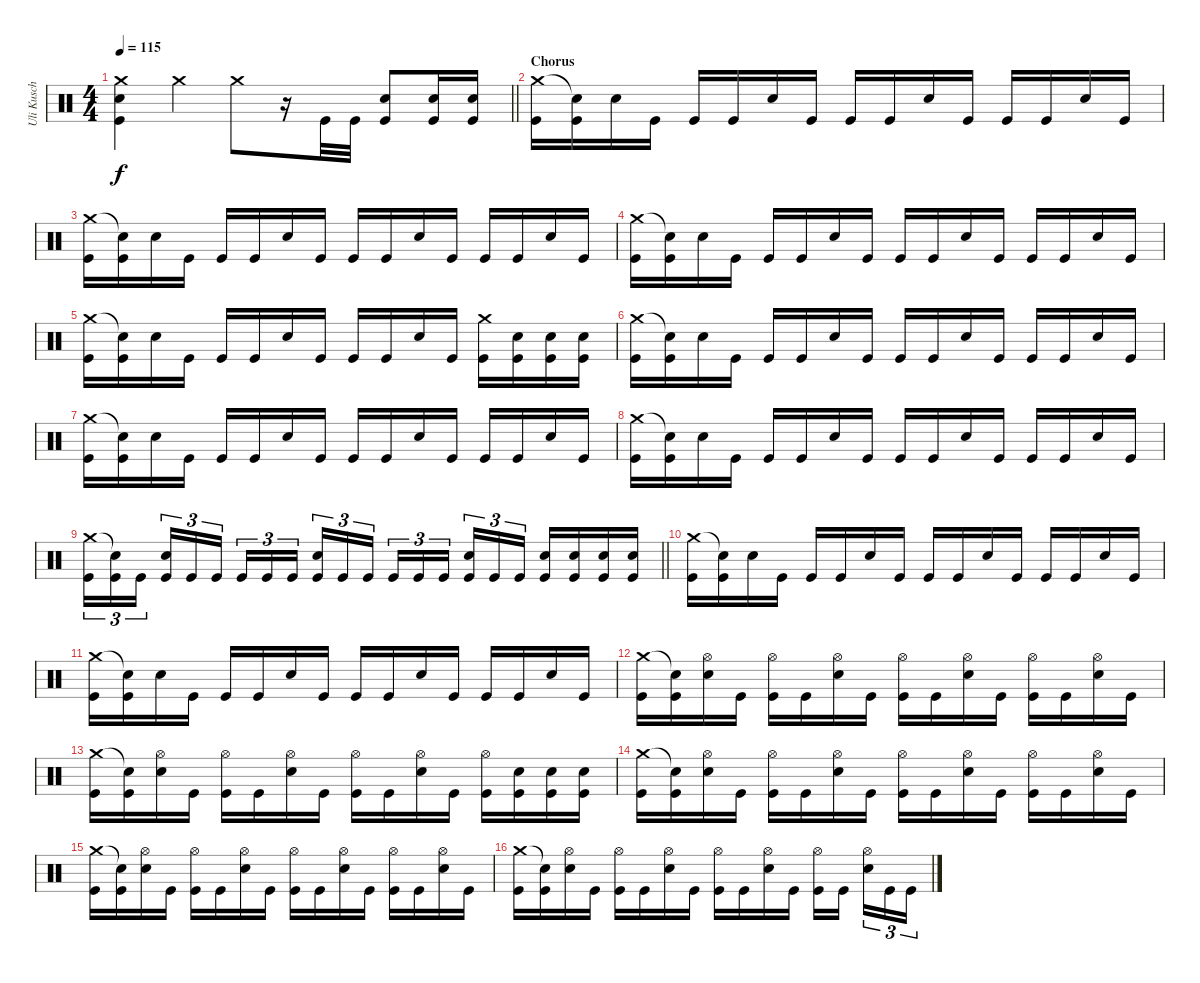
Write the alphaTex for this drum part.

\track ("Uli Kusch (Drums)" "Uli Kusch ") {instrument percussion}
\staff {score}
\articulation defaults
\ts (4 4)
\tempo 115
\clef neutral
\barLineRight lightlight
\ks c
("Crash medium (hit)" "Snare (hit) 2" "Kick (hit)").4{dy f} "Crash medium (hit)".4 "Crash medium (hit)".8 r.16 "Kick (hit)".32 "Kick (hit)".32 ("Snare (hit) 2" "Kick (hit)").8 ("Snare (hit) 2" "Kick (hit)").16 ("Snare (hit) 2" "Kick (hit)").16 |
\section ("" "Chorus")
("Crash medium (hit)" "Kick (hit)").16 ("Snare (hit)"{t} "Kick (hit)").16 "Snare (hit) 2".16 "Kick (hit)".16 "Kick (hit)".16 "Kick (hit)".16 "Snare (hit) 2".16 "Kick (hit)".16 "Kick (hit)".16 "Kick (hit)".16 "Snare (hit) 2".16 "Kick (hit)".16 "Kick (hit)".16 "Kick (hit)".16 "Snare (hit) 2".16 "Kick (hit)".16 |
("Crash medium (hit)" "Kick (hit)").16 ("Snare (hit)"{t} "Kick (hit)").16 "Snare (hit) 2".16 "Kick (hit)".16 "Kick (hit)".16 "Kick (hit)".16 "Snare (hit) 2".16 "Kick (hit)".16 "Kick (hit)".16 "Kick (hit)".16 "Snare (hit) 2".16 "Kick (hit)".16 "Kick (hit)".16 "Kick (hit)".16 "Snare (hit) 2".16 "Kick (hit)".16 |
("Crash medium (hit)" "Kick (hit)").16 ("Snare (hit)"{t} "Kick (hit)").16 "Snare (hit) 2".16 "Kick (hit)".16 "Kick (hit)".16 "Kick (hit)".16 "Snare (hit) 2".16 "Kick (hit)".16 "Kick (hit)".16 "Kick (hit)".16 "Snare (hit) 2".16 "Kick (hit)".16 "Kick (hit)".16 "Kick (hit)".16 "Snare (hit) 2".16 "Kick (hit)".16 |
("Crash medium (hit)" "Kick (hit)").16 ("Snare (hit)"{t} "Kick (hit)").16 "Snare (hit) 2".16 "Kick (hit)".16 "Kick (hit)".16 "Kick (hit)".16 "Snare (hit) 2".16 "Kick (hit)".16 "Kick (hit)".16 "Kick (hit)".16 "Snare (hit) 2".16 "Kick (hit)".16 ("Crash medium (hit)" "Kick (hit)").16 ("Snare (hit) 2" "Kick (hit)").16 ("Snare (hit) 2" "Kick (hit)").16 ("Snare (hit) 2" "Kick (hit)").16 |
("Crash medium (hit)" "Kick (hit)").16 ("Snare (hit)"{t} "Kick (hit)").16 "Snare (hit) 2".16 "Kick (hit)".16 "Kick (hit)".16 "Kick (hit)".16 "Snare (hit) 2".16 "Kick (hit)".16 "Kick (hit)".16 "Kick (hit)".16 "Snare (hit) 2".16 "Kick (hit)".16 "Kick (hit)".16 "Kick (hit)".16 "Snare (hit) 2".16 "Kick (hit)".16 |
("Crash medium (hit)" "Kick (hit)").16 ("Snare (hit)"{t} "Kick (hit)").16 "Snare (hit) 2".16 "Kick (hit)".16 "Kick (hit)".16 "Kick (hit)".16 "Snare (hit) 2".16 "Kick (hit)".16 "Kick (hit)".16 "Kick (hit)".16 "Snare (hit) 2".16 "Kick (hit)".16 "Kick (hit)".16 "Kick (hit)".16 "Snare (hit) 2".16 "Kick (hit)".16 |
("Crash medium (hit)" "Kick (hit)").16 ("Snare (hit)"{t} "Kick (hit)").16 "Snare (hit) 2".16 "Kick (hit)".16 "Kick (hit)".16 "Kick (hit)".16 "Snare (hit) 2".16 "Kick (hit)".16 "Kick (hit)".16 "Kick (hit)".16 "Snare (hit) 2".16 "Kick (hit)".16 "Kick (hit)".16 "Kick (hit)".16 "Snare (hit) 2".16 "Kick (hit)".16 |
\barLineRight lightlight
("Crash medium (hit)" "Kick (hit)").16{tu (3 2)} ("Snare (hit)"{t} "Kick (hit)").16{tu (3 2)} "Kick (hit)".16{tu (3 2) beam splitsecondary} ("Snare (hit) 2" "Kick (hit)").16{tu (3 2)} "Kick (hit)".16{tu (3 2)} "Kick (hit)".16{tu (3 2)} "Kick (hit)".16{tu (3 2)} "Kick (hit)".16{tu (3 2)} "Kick (hit)".16{tu (3 2) beam splitsecondary} ("Snare (hit) 2" "Kick (hit)").16{tu (3 2)} "Kick (hit)".16{tu (3 2)} "Kick (hit)".16{tu (3 2)} "Kick (hit)".16{tu (3 2)} "Kick (hit)".16{tu (3 2)} "Kick (hit)".16{tu (3 2) beam splitsecondary} ("Snare (hit) 2" "Kick (hit)").16{tu (3 2)} "Kick (hit)".16{tu (3 2)} "Kick (hit)".16{tu (3 2)} ("Snare (hit) 2" "Kick (hit)").16 ("Snare (hit) 2" "Kick (hit)").16 ("Snare (hit) 2" "Kick (hit)").16 ("Snare (hit) 2" "Kick (hit)").16 |
("Crash medium (hit)" "Kick (hit)").16 ("Snare (hit)"{t} "Kick (hit)").16 "Snare (hit) 2".16 "Kick (hit)".16 "Kick (hit)".16 "Kick (hit)".16 "Snare (hit) 2".16 "Kick (hit)".16 "Kick (hit)".16 "Kick (hit)".16 "Snare (hit) 2".16 "Kick (hit)".16 "Kick (hit)".16 "Kick (hit)".16 "Snare (hit) 2".16 "Kick (hit)".16 |
("Crash medium (hit)" "Kick (hit)").16 ("Snare (hit)"{t} "Kick (hit)").16 "Snare (hit) 2".16 "Kick (hit)".16 "Kick (hit)".16 "Kick (hit)".16 "Snare (hit) 2".16 "Kick (hit)".16 "Kick (hit)".16 "Kick (hit)".16 "Snare (hit) 2".16 "Kick (hit)".16 "Kick (hit)".16 "Kick (hit)".16 "Snare (hit) 2".16 "Kick (hit)".16 |
("Crash medium (hit)" "Kick (hit)").16 ("Snare (hit)"{t} "Kick (hit)").16 ("Hi-Hat (open)" "Snare (hit) 2").16 "Kick (hit)".16 ("Hi-Hat (open)" "Kick (hit)").16 "Kick (hit)".16 ("Hi-Hat (open)" "Snare (hit) 2").16 "Kick (hit)".16 ("Hi-Hat (open)" "Kick (hit)").16 "Kick (hit)".16 ("Hi-Hat (open)" "Snare (hit) 2").16 "Kick (hit)".16 ("Hi-Hat (open)" "Kick (hit)").16 "Kick (hit)".16 ("Hi-Hat (open)" "Snare (hit) 2").16 "Kick (hit)".16 |
("Crash medium (hit)" "Kick (hit)").16 ("Snare (hit)"{t} "Kick (hit)").16 ("Hi-Hat (open)" "Snare (hit) 2").16 "Kick (hit)".16 ("Hi-Hat (open)" "Kick (hit)").16 "Kick (hit)".16 ("Hi-Hat (open)" "Snare (hit) 2").16 "Kick (hit)".16 ("Hi-Hat (open)" "Kick (hit)").16 "Kick (hit)".16 ("Hi-Hat (open)" "Snare (hit) 2").16 "Kick (hit)".16 ("Hi-Hat (open)" "Kick (hit)").16 ("Snare (hit) 2" "Kick (hit)").16 ("Snare (hit) 2" "Kick (hit)").16 ("Snare (hit) 2" "Kick (hit)").16 |
("Crash medium (hit)" "Kick (hit)").16 ("Snare (hit)"{t} "Kick (hit)").16 ("Hi-Hat (open)" "Snare (hit) 2").16 "Kick (hit)".16 ("Hi-Hat (open)" "Kick (hit)").16 "Kick (hit)".16 ("Hi-Hat (open)" "Snare (hit) 2").16 "Kick (hit)".16 ("Hi-Hat (open)" "Kick (hit)").16 "Kick (hit)".16 ("Hi-Hat (open)" "Snare (hit) 2").16 "Kick (hit)".16 ("Hi-Hat (open)" "Kick (hit)").16 "Kick (hit)".16 ("Hi-Hat (open)" "Snare (hit) 2").16 "Kick (hit)".16 |
("Crash medium (hit)" "Kick (hit)").16 ("Snare (hit)"{t} "Kick (hit)").16 ("Hi-Hat (open)" "Snare (hit) 2").16 "Kick (hit)".16 ("Hi-Hat (open)" "Kick (hit)").16 "Kick (hit)".16 ("Hi-Hat (open)" "Snare (hit) 2").16 "Kick (hit)".16 ("Hi-Hat (open)" "Kick (hit)").16 "Kick (hit)".16 ("Hi-Hat (open)" "Snare (hit) 2").16 "Kick (hit)".16 ("Hi-Hat (open)" "Kick (hit)").16 "Kick (hit)".16 ("Hi-Hat (open)" "Snare (hit) 2").16 "Kick (hit)".16 |
("Crash medium (hit)" "Kick (hit)").16 ("Snare (hit)"{t} "Kick (hit)").16 ("Hi-Hat (open)" "Snare (hit) 2").16 "Kick (hit)".16 ("Hi-Hat (open)" "Kick (hit)").16 "Kick (hit)".16 ("Hi-Hat (open)" "Snare (hit) 2").16 "Kick (hit)".16 ("Hi-Hat (open)" "Kick (hit)").16 "Kick (hit)".16 ("Hi-Hat (open)" "Snare (hit) 2").16 "Kick (hit)".16 ("Hi-Hat (open)" "Kick (hit)").16 "Kick (hit)".16{beam splitsecondary} ("Hi-Hat (open)" "Snare (hit) 2").16{tu (3 2)} "Kick (hit)".16{tu (3 2)} "Kick (hit)".16{tu (3 2)}
